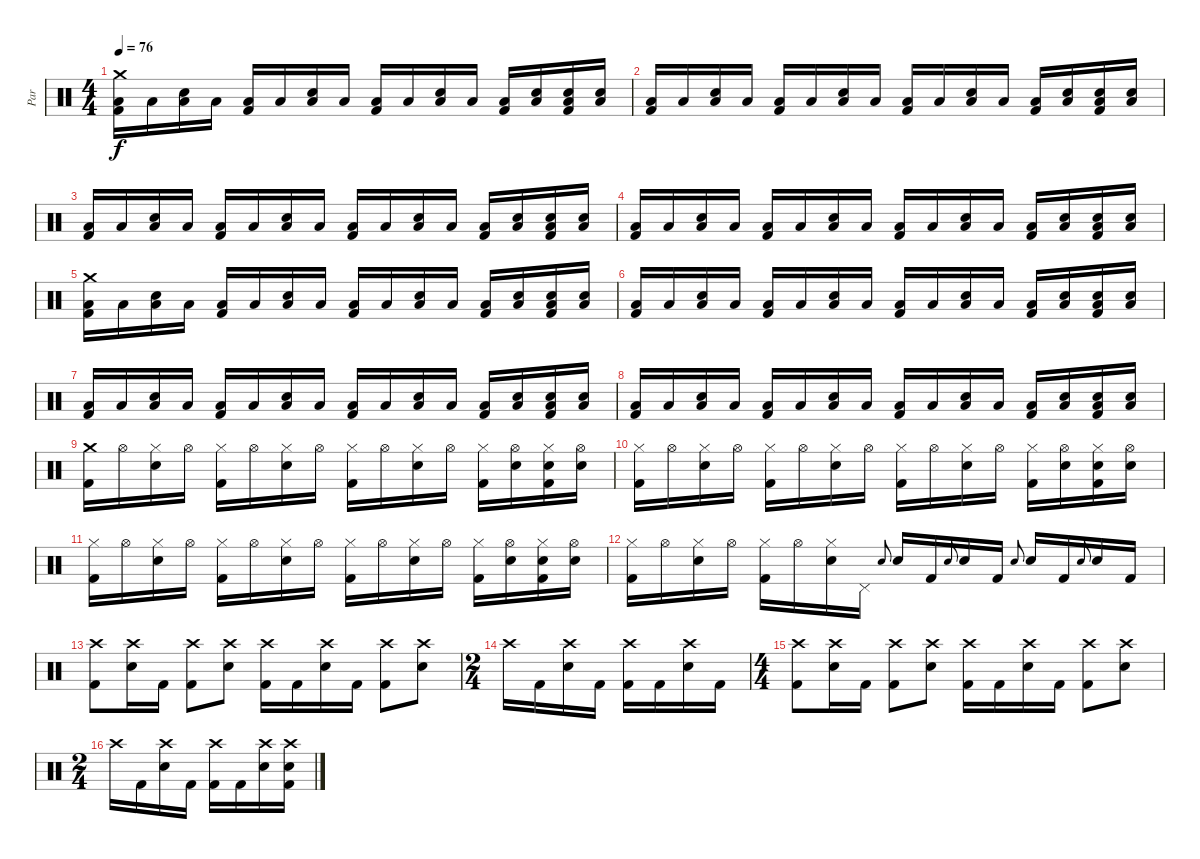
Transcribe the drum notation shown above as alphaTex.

\track ("Par" "Par") {instrument percussion}
\staff {score}
\articulation defaults
\ts (4 4)
\tempo 76
\clef neutral
\ks c
("Crash medium (hit)" "Low Floor Tom (hit)" "Kick (hit) 2").16{dy f} "Low Floor Tom (hit)".16 ("Low Floor Tom (hit)" "Snare (hit) 2").16 "Low Floor Tom (hit)".16 ("Low Floor Tom (hit)" "Kick (hit) 2").16 "Low Floor Tom (hit)".16 ("Low Floor Tom (hit)" "Snare (hit) 2").16 "Low Floor Tom (hit)".16 ("Low Floor Tom (hit)" "Kick (hit) 2").16 "Low Floor Tom (hit)".16 ("Low Floor Tom (hit)" "Snare (hit) 2").16 "Low Floor Tom (hit)".16 ("Low Floor Tom (hit)" "Kick (hit) 2").16 ("Low Floor Tom (hit)" "Snare (hit) 2").16 ("Low Floor Tom (hit)" "Snare (hit) 2" "Kick (hit) 2").16 ("Low Floor Tom (hit)" "Snare (hit) 2").16 |
("Low Floor Tom (hit)" "Kick (hit) 2").16 "Low Floor Tom (hit)".16 ("Low Floor Tom (hit)" "Snare (hit) 2").16 "Low Floor Tom (hit)".16 ("Low Floor Tom (hit)" "Kick (hit) 2").16 "Low Floor Tom (hit)".16 ("Low Floor Tom (hit)" "Snare (hit) 2").16 "Low Floor Tom (hit)".16 ("Low Floor Tom (hit)" "Kick (hit) 2").16 "Low Floor Tom (hit)".16 ("Low Floor Tom (hit)" "Snare (hit) 2").16 "Low Floor Tom (hit)".16 ("Low Floor Tom (hit)" "Kick (hit) 2").16 ("Low Floor Tom (hit)" "Snare (hit) 2").16 ("Low Floor Tom (hit)" "Snare (hit) 2" "Kick (hit) 2").16 ("Low Floor Tom (hit)" "Snare (hit) 2").16 |
("Low Floor Tom (hit)" "Kick (hit) 2").16 "Low Floor Tom (hit)".16 ("Low Floor Tom (hit)" "Snare (hit) 2").16 "Low Floor Tom (hit)".16 ("Low Floor Tom (hit)" "Kick (hit) 2").16 "Low Floor Tom (hit)".16 ("Low Floor Tom (hit)" "Snare (hit) 2").16 "Low Floor Tom (hit)".16 ("Low Floor Tom (hit)" "Kick (hit) 2").16 "Low Floor Tom (hit)".16 ("Low Floor Tom (hit)" "Snare (hit) 2").16 "Low Floor Tom (hit)".16 ("Low Floor Tom (hit)" "Kick (hit) 2").16 ("Low Floor Tom (hit)" "Snare (hit) 2").16 ("Low Floor Tom (hit)" "Snare (hit) 2" "Kick (hit) 2").16 ("Low Floor Tom (hit)" "Snare (hit) 2").16 |
("Low Floor Tom (hit)" "Kick (hit) 2").16 "Low Floor Tom (hit)".16 ("Low Floor Tom (hit)" "Snare (hit) 2").16 "Low Floor Tom (hit)".16 ("Low Floor Tom (hit)" "Kick (hit) 2").16 "Low Floor Tom (hit)".16 ("Low Floor Tom (hit)" "Snare (hit) 2").16 "Low Floor Tom (hit)".16 ("Low Floor Tom (hit)" "Kick (hit) 2").16 "Low Floor Tom (hit)".16 ("Low Floor Tom (hit)" "Snare (hit) 2").16 "Low Floor Tom (hit)".16 ("Low Floor Tom (hit)" "Kick (hit) 2").16 ("Low Floor Tom (hit)" "Snare (hit) 2").16 ("Low Floor Tom (hit)" "Snare (hit) 2" "Kick (hit) 2").16 ("Low Floor Tom (hit)" "Snare (hit) 2").16 |
("Crash medium (hit)" "Low Floor Tom (hit)" "Kick (hit) 2").16 "Low Floor Tom (hit)".16 ("Low Floor Tom (hit)" "Snare (hit) 2").16 "Low Floor Tom (hit)".16 ("Low Floor Tom (hit)" "Kick (hit) 2").16 "Low Floor Tom (hit)".16 ("Low Floor Tom (hit)" "Snare (hit) 2").16 "Low Floor Tom (hit)".16 ("Low Floor Tom (hit)" "Kick (hit) 2").16 "Low Floor Tom (hit)".16 ("Low Floor Tom (hit)" "Snare (hit) 2").16 "Low Floor Tom (hit)".16 ("Low Floor Tom (hit)" "Kick (hit) 2").16 ("Low Floor Tom (hit)" "Snare (hit) 2").16 ("Low Floor Tom (hit)" "Snare (hit) 2" "Kick (hit) 2").16 ("Low Floor Tom (hit)" "Snare (hit) 2").16 |
("Low Floor Tom (hit)" "Kick (hit) 2").16 "Low Floor Tom (hit)".16 ("Low Floor Tom (hit)" "Snare (hit) 2").16 "Low Floor Tom (hit)".16 ("Low Floor Tom (hit)" "Kick (hit) 2").16 "Low Floor Tom (hit)".16 ("Low Floor Tom (hit)" "Snare (hit) 2").16 "Low Floor Tom (hit)".16 ("Low Floor Tom (hit)" "Kick (hit) 2").16 "Low Floor Tom (hit)".16 ("Low Floor Tom (hit)" "Snare (hit) 2").16 "Low Floor Tom (hit)".16 ("Low Floor Tom (hit)" "Kick (hit) 2").16 ("Low Floor Tom (hit)" "Snare (hit) 2").16 ("Low Floor Tom (hit)" "Snare (hit) 2" "Kick (hit) 2").16 ("Low Floor Tom (hit)" "Snare (hit) 2").16 |
("Low Floor Tom (hit)" "Kick (hit) 2").16 "Low Floor Tom (hit)".16 ("Low Floor Tom (hit)" "Snare (hit) 2").16 "Low Floor Tom (hit)".16 ("Low Floor Tom (hit)" "Kick (hit) 2").16 "Low Floor Tom (hit)".16 ("Low Floor Tom (hit)" "Snare (hit) 2").16 "Low Floor Tom (hit)".16 ("Low Floor Tom (hit)" "Kick (hit) 2").16 "Low Floor Tom (hit)".16 ("Low Floor Tom (hit)" "Snare (hit) 2").16 "Low Floor Tom (hit)".16 ("Low Floor Tom (hit)" "Kick (hit) 2").16 ("Low Floor Tom (hit)" "Snare (hit) 2").16 ("Low Floor Tom (hit)" "Snare (hit) 2" "Kick (hit) 2").16 ("Low Floor Tom (hit)" "Snare (hit) 2").16 |
("Low Floor Tom (hit)" "Kick (hit) 2").16 "Low Floor Tom (hit)".16 ("Low Floor Tom (hit)" "Snare (hit) 2").16 "Low Floor Tom (hit)".16 ("Low Floor Tom (hit)" "Kick (hit) 2").16 "Low Floor Tom (hit)".16 ("Low Floor Tom (hit)" "Snare (hit) 2").16 "Low Floor Tom (hit)".16 ("Low Floor Tom (hit)" "Kick (hit) 2").16 "Low Floor Tom (hit)".16 ("Low Floor Tom (hit)" "Snare (hit) 2").16 "Low Floor Tom (hit)".16 ("Low Floor Tom (hit)" "Kick (hit) 2").16 ("Low Floor Tom (hit)" "Snare (hit) 2").16 ("Low Floor Tom (hit)" "Snare (hit) 2" "Kick (hit) 2").16 ("Low Floor Tom (hit)" "Snare (hit) 2").16 |
("Crash medium (hit)" "Kick (hit) 2").16 "Hi-Hat (open)".16 ("Hi-Hat (closed)" "Snare (hit) 2").16 "Hi-Hat (open)".16 ("Hi-Hat (closed)" "Kick (hit) 2").16 "Hi-Hat (open)".16 ("Hi-Hat (closed)" "Snare (hit) 2").16 "Hi-Hat (open)".16 ("Hi-Hat (closed)" "Kick (hit) 2").16 "Hi-Hat (open)".16 ("Hi-Hat (closed)" "Snare (hit) 2").16 "Hi-Hat (open)".16 ("Hi-Hat (closed)" "Kick (hit) 2").16 ("Hi-Hat (open)" "Snare (hit) 2").16 ("Hi-Hat (closed)" "Snare (hit) 2" "Kick (hit) 2").16 ("Hi-Hat (open)" "Snare (hit) 2").16 |
("Hi-Hat (closed)" "Kick (hit) 2").16 "Hi-Hat (open)".16 ("Hi-Hat (closed)" "Snare (hit) 2").16 "Hi-Hat (open)".16 ("Hi-Hat (closed)" "Kick (hit) 2").16 "Hi-Hat (open)".16 ("Hi-Hat (closed)" "Snare (hit) 2").16 "Hi-Hat (open)".16 ("Hi-Hat (closed)" "Kick (hit) 2").16 "Hi-Hat (open)".16 ("Hi-Hat (closed)" "Snare (hit) 2").16 "Hi-Hat (open)".16 ("Hi-Hat (closed)" "Kick (hit) 2").16 ("Hi-Hat (open)" "Snare (hit) 2").16 ("Hi-Hat (closed)" "Snare (hit) 2" "Kick (hit) 2").16 ("Hi-Hat (open)" "Snare (hit) 2").16 |
("Hi-Hat (closed)" "Kick (hit) 2").16 "Hi-Hat (open)".16 ("Hi-Hat (closed)" "Snare (hit) 2").16 "Hi-Hat (open)".16 ("Hi-Hat (closed)" "Kick (hit) 2").16 "Hi-Hat (open)".16 ("Hi-Hat (closed)" "Snare (hit) 2").16 "Hi-Hat (open)".16 ("Hi-Hat (closed)" "Kick (hit) 2").16 "Hi-Hat (open)".16 ("Hi-Hat (closed)" "Snare (hit) 2").16 "Hi-Hat (open)".16 ("Hi-Hat (closed)" "Kick (hit) 2").16 ("Hi-Hat (open)" "Snare (hit) 2").16 ("Hi-Hat (closed)" "Snare (hit) 2" "Kick (hit) 2").16 ("Hi-Hat (open)" "Snare (hit) 2").16 |
("Hi-Hat (closed)" "Kick (hit) 2").16 "Hi-Hat (open)".16 ("Hi-Hat (closed)" "Snare (hit) 2").16 "Hi-Hat (open)".16 ("Hi-Hat (closed)" "Kick (hit) 2").16 "Hi-Hat (open)".16 ("Hi-Hat (closed)" "Snare (hit) 2").16 "Pedal Hi-Hat (hit)".16 "Snare (hit) 2".8{gr onbeat} "Snare (hit) 2".16 "Kick (hit) 2".16 "Snare (hit) 2".8{gr onbeat} "Snare (hit) 2".16 "Kick (hit) 2".16 "Snare (hit) 2".8{gr onbeat} "Snare (hit) 2".16 "Kick (hit) 2".16 "Snare (hit) 2".8{gr onbeat} "Snare (hit) 2".16 "Kick (hit) 2".16 |
("Crash high (hit)" "Kick (hit) 2").8 ("Crash high (hit)" "Snare (hit) 2").16 "Kick (hit) 2".16 ("Crash high (hit)" "Kick (hit) 2").8 ("Crash high (hit)" "Snare (hit) 2").8 ("Crash high (hit)" "Kick (hit) 2").16 "Kick (hit) 2".16 ("Crash high (hit)" "Snare (hit) 2").16 "Kick (hit) 2".16 ("Crash high (hit)" "Kick (hit) 2").8 ("Crash high (hit)" "Snare (hit) 2").8 |
\ts (2 4)
"Crash high (hit)".16 "Kick (hit) 2".16 ("Crash high (hit)" "Snare (hit) 2").16 "Kick (hit) 2".16 ("Crash high (hit)" "Kick (hit) 2").16 "Kick (hit) 2".16 ("Crash high (hit)" "Snare (hit) 2").16 "Kick (hit) 2".16 |
\ts (4 4)
("Crash high (hit)" "Kick (hit) 2").8 ("Crash high (hit)" "Snare (hit) 2").16 "Kick (hit) 2".16 ("Crash high (hit)" "Kick (hit) 2").8 ("Crash high (hit)" "Snare (hit) 2").8 ("Crash high (hit)" "Kick (hit) 2").16 "Kick (hit) 2".16 ("Crash high (hit)" "Snare (hit) 2").16 "Kick (hit) 2".16 ("Crash high (hit)" "Kick (hit) 2").8 ("Crash high (hit)" "Snare (hit) 2").8 |
\ts (2 4)
"Crash high (hit)".16 "Kick (hit) 2".16 ("Crash high (hit)" "Snare (hit) 2").16 "Kick (hit) 2".16 ("Crash high (hit)" "Kick (hit) 2").16 "Kick (hit) 2".16 ("Crash high (hit)" "Snare (hit) 2").16 ("Crash high (hit)" "Snare (hit) 2" "Kick (hit) 2").16
